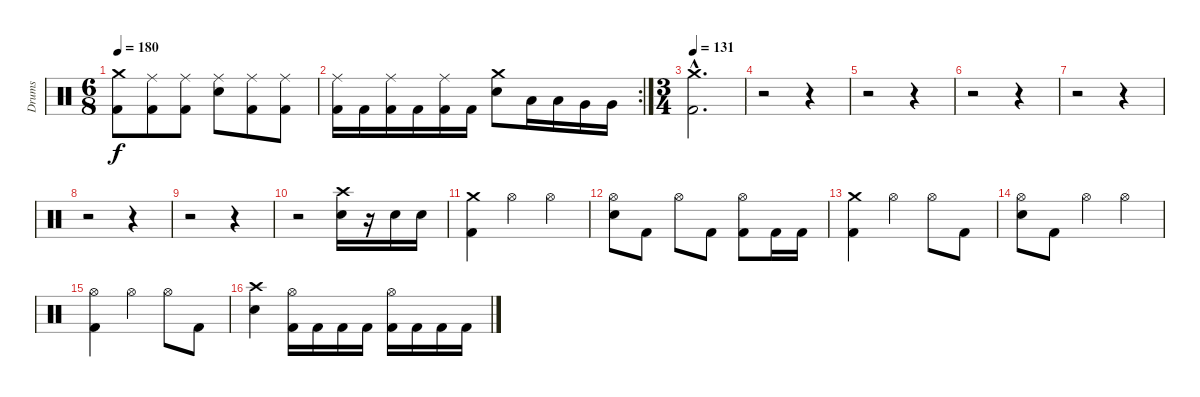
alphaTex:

\track ("Drums" "Drums") {instrument percussion}
\staff {score}
\articulation defaults
\ts (6 8)
\tempo 180
\clef neutral
\ks c
("Kick (hit) 2" "Crash medium (hit)").8{dy f} ("Kick (hit) 2" "Ride (middle)").8 ("Kick (hit) 2" "Ride (middle)").8 ("Electric Snare (hit)" "Ride (middle)").8 ("Kick (hit) 2" "Ride (middle)").8 ("Kick (hit) 2" "Ride (middle)").8 |
\rc 2
("Kick (hit) 2" "Ride (middle)").16 "Kick (hit) 2".16 ("Kick (hit) 2" "Ride (middle)").16 "Kick (hit) 2".16 ("Kick (hit) 2" "Ride (middle)").16 "Kick (hit) 2".16 ("Electric Snare (hit)" "Crash medium (hit)").8 "Low Tom (hit)".16 "Low Tom (hit)".16 "Very Low Tom (hit)".16 "Very Low Tom (hit)".16 |
\ts (3 4)
\tempo 131
("Kick (hit) 2"{hac} "Crash medium (hit)"{hac}).2{d} |
r.2 r.4 |
r.2 r.4 |
r.2 r.4 |
r.2 r.4 |
r.2 r.4 |
r.2 r.4 |
r.2 ("Electric Snare (hit)" "Crash high (hit)").16 r.16 "Electric Snare (hit)".16 "Electric Snare (hit)".16 |
("Kick (hit) 2" "Crash medium (hit)").4 "Hi-Hat (open)".4 "Hi-Hat (open)".4 |
("Electric Snare (hit)" "Hi-Hat (open)").8 "Kick (hit) 2".8 "Hi-Hat (open)".8 "Kick (hit) 2".8 ("Kick (hit) 2" "Hi-Hat (open)").8 "Kick (hit) 2".16 "Kick (hit) 2".16 |
("Kick (hit) 2" "Crash medium (hit)").4 "Hi-Hat (open)".4 "Hi-Hat (open)".8 "Kick (hit) 2".8 |
("Electric Snare (hit)" "Hi-Hat (open)").8 "Kick (hit) 2".8 "Hi-Hat (open)".4 "Hi-Hat (open)".4 |
("Kick (hit) 2" "Hi-Hat (open)").4 "Hi-Hat (open)".4 "Hi-Hat (open)".8 "Kick (hit) 2".8 |
("Electric Snare (hit)" "Crash high (hit)").4 ("Kick (hit) 2" "Hi-Hat (open)").16 "Kick (hit) 2".16 "Kick (hit) 2".16 "Kick (hit) 2".16 ("Kick (hit) 2" "Hi-Hat (open)").16 "Kick (hit) 2".16 "Kick (hit) 2".16 "Kick (hit) 2".16
